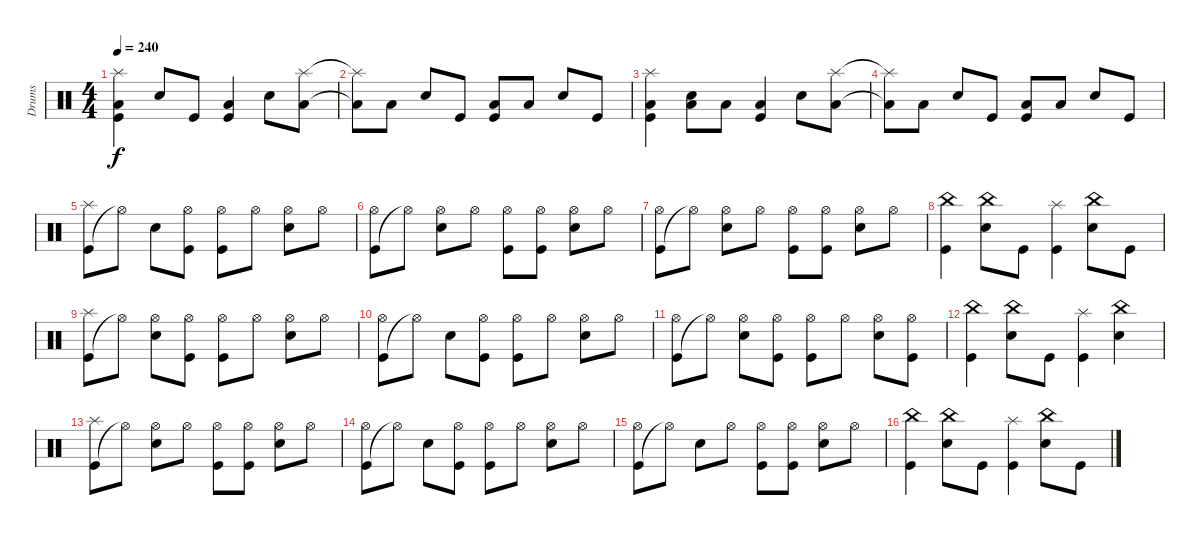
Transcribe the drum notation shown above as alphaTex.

\track ("Drums" "Drums") {instrument percussion}
\staff {score}
\articulation defaults
\ts (4 4)
\tempo 240
\clef neutral
\ks c
("Splash (hit)" "Low Floor Tom (hit)" "Kick (hit)").4{dy f} "Snare (hit) 2".8 "Kick (hit)".8 ("Low Floor Tom (hit)" "Kick (hit)").4 "Snare (hit) 2".8 ("Splash (hit)" "Low Floor Tom (hit)").8 |
("Splash (hit)"{t} "Low Floor Tom (hit)"{t}).8 "Low Floor Tom (hit)".8 "Snare (hit) 2".8 "Kick (hit)".8 ("Low Floor Tom (hit)" "Kick (hit)").8 "Low Floor Tom (hit)".8 "Snare (hit) 2".8 "Kick (hit)".8 |
("Splash (hit)" "Low Floor Tom (hit)" "Kick (hit)").4 ("Low Floor Tom (hit)" "Snare (hit) 2").8 "Low Floor Tom (hit)".8 ("Low Floor Tom (hit)" "Kick (hit)").4 "Snare (hit) 2".8 ("Splash (hit)" "Low Floor Tom (hit)").8 |
("Splash (hit)"{t} "Low Floor Tom (hit)"{t}).8 "Low Floor Tom (hit)".8 "Snare (hit) 2".8 "Kick (hit)".8 ("Low Floor Tom (hit)" "Kick (hit)").8 "Low Floor Tom (hit)".8 "Snare (hit) 2".8 "Kick (hit)".8 |
("Kick (hit)" "Splash (hit)").8 "Hi-Hat (open)"{t}.8 "Snare (hit) 2".8 ("Kick (hit)" "Hi-Hat (open)").8 ("Kick (hit)" "Hi-Hat (open)").8 "Hi-Hat (open)".8 ("Snare (hit) 2" "Hi-Hat (open)").8 "Hi-Hat (open)".8 |
("Kick (hit)" "Hi-Hat (open)").8 "Hi-Hat (open)"{t}.8 ("Snare (hit) 2" "Hi-Hat (open)").8 "Hi-Hat (open)".8 ("Kick (hit)" "Hi-Hat (open)").8 ("Kick (hit)" "Hi-Hat (open)").8 ("Snare (hit) 2" "Hi-Hat (open)").8 "Hi-Hat (open)".8 |
("Kick (hit)" "Hi-Hat (open)").8 "Hi-Hat (open)"{t}.8 ("Snare (hit) 2" "Hi-Hat (open)").8 "Hi-Hat (open)".8 ("Kick (hit)" "Hi-Hat (open)").8 ("Kick (hit)" "Hi-Hat (open)").8 ("Snare (hit) 2" "Hi-Hat (open)").8 "Hi-Hat (open)".8 |
("Kick (hit)" "China (hit)").4 ("Snare (hit) 2" "China (hit)").8 "Kick (hit)".8 ("Kick (hit)" "Splash (hit)").4 ("Snare (hit) 2" "China (hit)").8 "Kick (hit)".8 |
("Kick (hit)" "Splash (hit)").8 "Hi-Hat (open)"{t}.8 ("Snare (hit) 2" "Hi-Hat (open)").8 ("Kick (hit)" "Hi-Hat (open)").8 ("Kick (hit)" "Hi-Hat (open)").8 "Hi-Hat (open)".8 ("Snare (hit) 2" "Hi-Hat (open)").8 "Hi-Hat (open)".8 |
("Kick (hit)" "Hi-Hat (open)").8 "Hi-Hat (open)"{t}.8 "Snare (hit) 2".8 ("Kick (hit)" "Hi-Hat (open)").8 ("Kick (hit)" "Hi-Hat (open)").8 "Hi-Hat (open)".8 ("Snare (hit) 2" "Hi-Hat (open)").8 "Hi-Hat (open)".8 |
("Kick (hit)" "Hi-Hat (open)").8 "Hi-Hat (open)"{t}.8 ("Snare (hit) 2" "Hi-Hat (open)").8 ("Kick (hit)" "Hi-Hat (open)").8 ("Kick (hit)" "Hi-Hat (open)").8 "Hi-Hat (open)".8 ("Snare (hit) 2" "Hi-Hat (open)").8 ("Kick (hit)" "Hi-Hat (open)").8 |
("Kick (hit)" "China (hit)").4 ("Snare (hit) 2" "China (hit)").8 "Kick (hit)".8 ("Kick (hit)" "Splash (hit)").4 ("Snare (hit) 2" "China (hit)").4 |
("Kick (hit)" "Splash (hit)").8 "Hi-Hat (open)"{t}.8 ("Snare (hit) 2" "Hi-Hat (open)").8 "Hi-Hat (open)".8 ("Kick (hit)" "Hi-Hat (open)").8 ("Kick (hit)" "Hi-Hat (open)").8 ("Snare (hit) 2" "Hi-Hat (open)").8 "Hi-Hat (open)".8 |
("Kick (hit)" "Hi-Hat (open)").8 "Hi-Hat (open)"{t}.8 "Snare (hit) 2".8 ("Kick (hit)" "Hi-Hat (open)").8 ("Kick (hit)" "Hi-Hat (open)").8 "Hi-Hat (open)".8 ("Snare (hit) 2" "Hi-Hat (open)").8 "Hi-Hat (open)".8 |
("Kick (hit)" "Hi-Hat (open)").8 "Hi-Hat (open)"{t}.8 "Snare (hit) 2".8 "Hi-Hat (open)".8 ("Kick (hit)" "Hi-Hat (open)").8 ("Kick (hit)" "Hi-Hat (open)").8 ("Snare (hit) 2" "Hi-Hat (open)").8 "Hi-Hat (open)".8 |
("Kick (hit)" "China (hit)").4 ("Snare (hit) 2" "China (hit)").8 "Kick (hit)".8 ("Kick (hit)" "Splash (hit)").4 ("Snare (hit) 2" "China (hit)").8 "Kick (hit)".8
